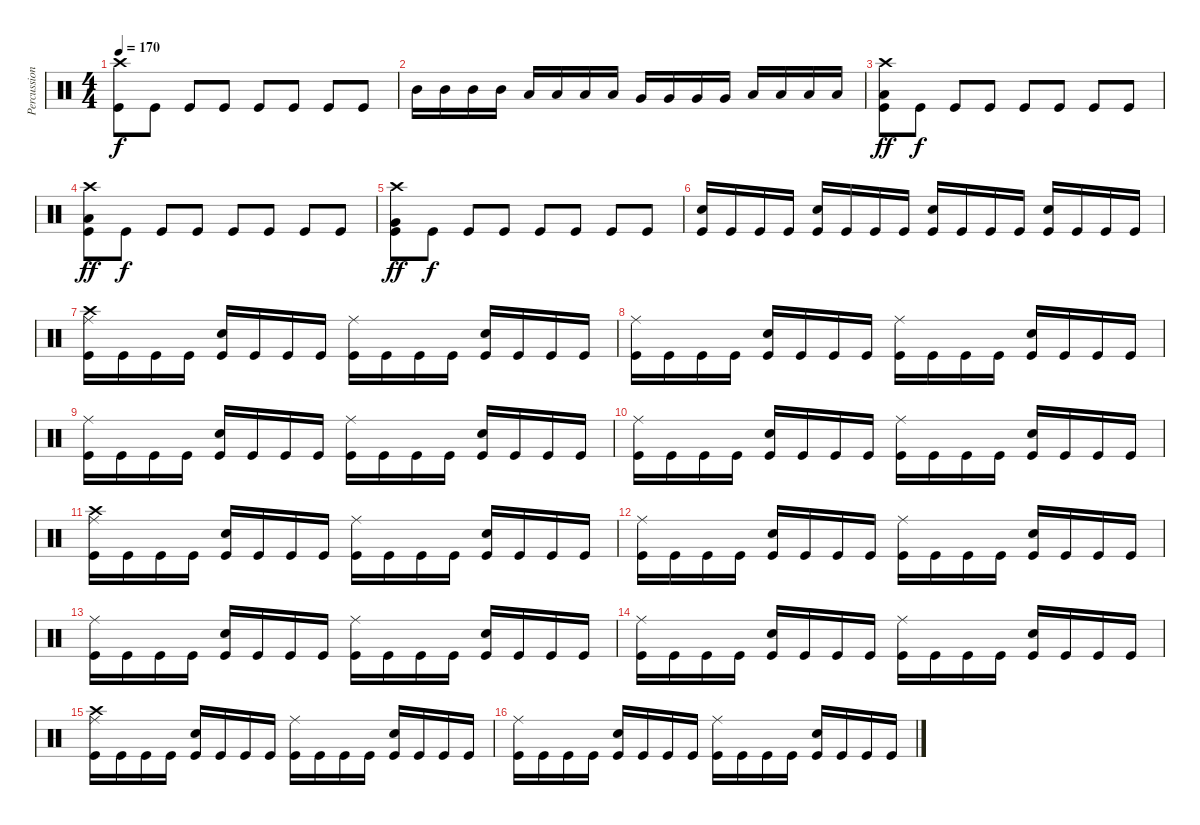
\track ("Percussion" "Percussion") {instrument percussion}
\staff {score}
\articulation defaults
\ts (4 4)
\tempo 170
\clef neutral
\ks c
("Crash high (hit)" "Kick (hit)").8{dy f} "Kick (hit)".8 "Kick (hit)".8 "Kick (hit)".8 "Kick (hit)".8 "Kick (hit)".8 "Kick (hit)".8 "Kick (hit)".8 |
"Mid Tom (hit)".16 "Mid Tom (hit)".16 "Mid Tom (hit)".16 "Mid Tom (hit)".16 "Low Tom (hit)".16 "Low Tom (hit)".16 "Low Tom (hit)".16 "Low Tom (hit)".16 "Very Low Tom (hit)".16 "Very Low Tom (hit)".16 "Very Low Tom (hit)".16 "Very Low Tom (hit)".16 "Low Floor Tom (hit)".16 "Low Floor Tom (hit)".16 "Low Floor Tom (hit)".16 "Low Floor Tom (hit)".16 |
("Crash high (hit)" "Low Tom (hit)" "Kick (hit)").8{dy ff} "Kick (hit)".8{dy f} "Kick (hit)".8 "Kick (hit)".8 "Kick (hit)".8 "Kick (hit)".8 "Kick (hit)".8 "Kick (hit)".8 |
("Crash high (hit)" "Low Floor Tom (hit)" "Kick (hit)").8{dy ff} "Kick (hit)".8{dy f} "Kick (hit)".8 "Kick (hit)".8 "Kick (hit)".8 "Kick (hit)".8 "Kick (hit)".8 "Kick (hit)".8 |
("Crash high (hit)" "Very Low Tom (hit)" "Kick (hit)").8{dy ff} "Kick (hit)".8{dy f} "Kick (hit)".8 "Kick (hit)".8 "Kick (hit)".8 "Kick (hit)".8 "Kick (hit)".8 "Kick (hit)".8 |
("Snare (hit) 2" "Kick (hit)").16 "Kick (hit)".16 "Kick (hit)".16 "Kick (hit)".16 ("Snare (hit) 2" "Kick (hit)").16 "Kick (hit)".16 "Kick (hit)".16 "Kick (hit)".16 ("Snare (hit) 2" "Kick (hit)").16 "Kick (hit)".16 "Kick (hit)".16 "Kick (hit)".16 ("Snare (hit) 2" "Kick (hit)").16 "Kick (hit)".16 "Kick (hit)".16 "Kick (hit)".16 |
("Ride (middle)" "Crash high (hit)" "Kick (hit)").16 "Kick (hit)".16 "Kick (hit)".16 "Kick (hit)".16 ("Snare (hit) 2" "Kick (hit)").16 "Kick (hit)".16 "Kick (hit)".16 "Kick (hit)".16 ("Ride (middle)" "Kick (hit)").16 "Kick (hit)".16 "Kick (hit)".16 "Kick (hit)".16 ("Snare (hit) 2" "Kick (hit)").16 "Kick (hit)".16 "Kick (hit)".16 "Kick (hit)".16 |
("Ride (middle)" "Kick (hit)").16 "Kick (hit)".16 "Kick (hit)".16 "Kick (hit)".16 ("Snare (hit) 2" "Kick (hit)").16 "Kick (hit)".16 "Kick (hit)".16 "Kick (hit)".16 ("Ride (middle)" "Kick (hit)").16 "Kick (hit)".16 "Kick (hit)".16 "Kick (hit)".16 ("Snare (hit) 2" "Kick (hit)").16 "Kick (hit)".16 "Kick (hit)".16 "Kick (hit)".16 |
("Ride (middle)" "Kick (hit)").16 "Kick (hit)".16 "Kick (hit)".16 "Kick (hit)".16 ("Snare (hit) 2" "Kick (hit)").16 "Kick (hit)".16 "Kick (hit)".16 "Kick (hit)".16 ("Ride (middle)" "Kick (hit)").16 "Kick (hit)".16 "Kick (hit)".16 "Kick (hit)".16 ("Snare (hit) 2" "Kick (hit)").16 "Kick (hit)".16 "Kick (hit)".16 "Kick (hit)".16 |
("Ride (middle)" "Kick (hit)").16 "Kick (hit)".16 "Kick (hit)".16 "Kick (hit)".16 ("Snare (hit) 2" "Kick (hit)").16 "Kick (hit)".16 "Kick (hit)".16 "Kick (hit)".16 ("Ride (middle)" "Kick (hit)").16 "Kick (hit)".16 "Kick (hit)".16 "Kick (hit)".16 ("Snare (hit) 2" "Kick (hit)").16 "Kick (hit)".16 "Kick (hit)".16 "Kick (hit)".16 |
("Ride (middle)" "Crash high (hit)" "Kick (hit)").16 "Kick (hit)".16 "Kick (hit)".16 "Kick (hit)".16 ("Snare (hit) 2" "Kick (hit)").16 "Kick (hit)".16 "Kick (hit)".16 "Kick (hit)".16 ("Ride (middle)" "Kick (hit)").16 "Kick (hit)".16 "Kick (hit)".16 "Kick (hit)".16 ("Snare (hit) 2" "Kick (hit)").16 "Kick (hit)".16 "Kick (hit)".16 "Kick (hit)".16 |
("Ride (middle)" "Kick (hit)").16 "Kick (hit)".16 "Kick (hit)".16 "Kick (hit)".16 ("Snare (hit) 2" "Kick (hit)").16 "Kick (hit)".16 "Kick (hit)".16 "Kick (hit)".16 ("Ride (middle)" "Kick (hit)").16 "Kick (hit)".16 "Kick (hit)".16 "Kick (hit)".16 ("Snare (hit) 2" "Kick (hit)").16 "Kick (hit)".16 "Kick (hit)".16 "Kick (hit)".16 |
("Ride (middle)" "Kick (hit)").16 "Kick (hit)".16 "Kick (hit)".16 "Kick (hit)".16 ("Snare (hit) 2" "Kick (hit)").16 "Kick (hit)".16 "Kick (hit)".16 "Kick (hit)".16 ("Ride (middle)" "Kick (hit)").16 "Kick (hit)".16 "Kick (hit)".16 "Kick (hit)".16 ("Snare (hit) 2" "Kick (hit)").16 "Kick (hit)".16 "Kick (hit)".16 "Kick (hit)".16 |
("Ride (middle)" "Kick (hit)").16 "Kick (hit)".16 "Kick (hit)".16 "Kick (hit)".16 ("Snare (hit) 2" "Kick (hit)").16 "Kick (hit)".16 "Kick (hit)".16 "Kick (hit)".16 ("Ride (middle)" "Kick (hit)").16 "Kick (hit)".16 "Kick (hit)".16 "Kick (hit)".16 ("Snare (hit) 2" "Kick (hit)").16 "Kick (hit)".16 "Kick (hit)".16 "Kick (hit)".16 |
("Ride (middle)" "Crash high (hit)" "Kick (hit)").16 "Kick (hit)".16 "Kick (hit)".16 "Kick (hit)".16 ("Snare (hit) 2" "Kick (hit)").16 "Kick (hit)".16 "Kick (hit)".16 "Kick (hit)".16 ("Ride (middle)" "Kick (hit)").16 "Kick (hit)".16 "Kick (hit)".16 "Kick (hit)".16 ("Snare (hit) 2" "Kick (hit)").16 "Kick (hit)".16 "Kick (hit)".16 "Kick (hit)".16 |
("Ride (middle)" "Kick (hit)").16 "Kick (hit)".16 "Kick (hit)".16 "Kick (hit)".16 ("Snare (hit) 2" "Kick (hit)").16 "Kick (hit)".16 "Kick (hit)".16 "Kick (hit)".16 ("Ride (middle)" "Kick (hit)").16 "Kick (hit)".16 "Kick (hit)".16 "Kick (hit)".16 ("Snare (hit) 2" "Kick (hit)").16 "Kick (hit)".16 "Kick (hit)".16 "Kick (hit)".16
